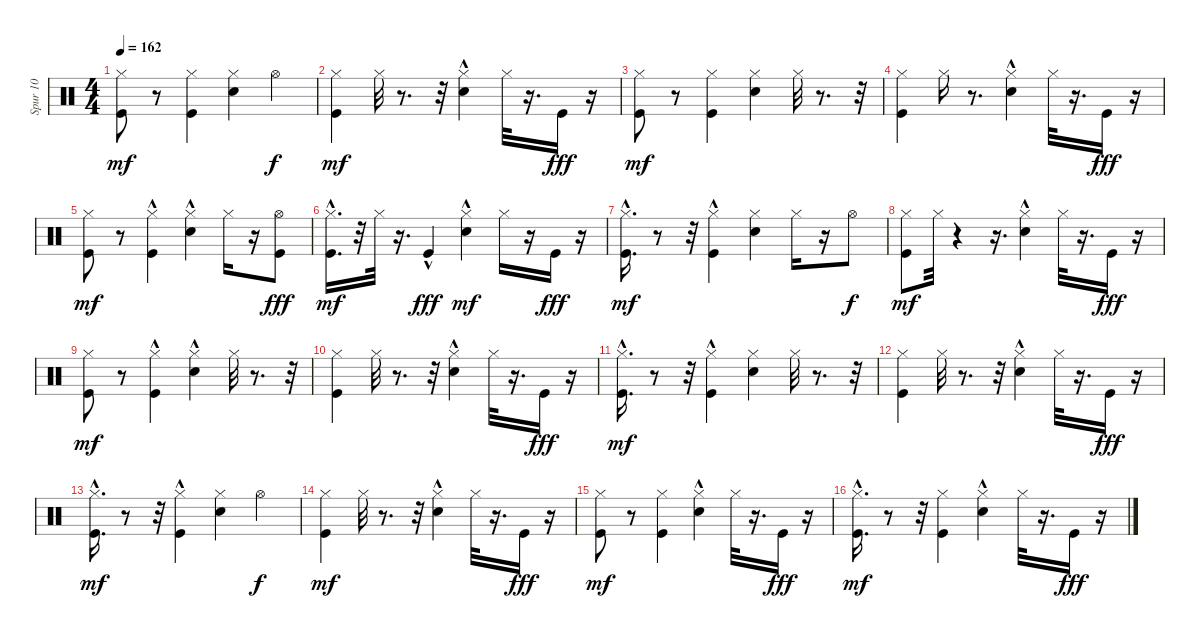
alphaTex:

\track ("Spur 10" "Spur 10") {instrument percussion}
\staff {score}
\articulation defaults
\ts (4 4)
\tempo 162
\clef neutral
\ks c
("Kick (hit)" "Hi-Hat (closed)").8{dy mf} r.8 ("Kick (hit)" "Hi-Hat (closed)").4 ("Snare (hit) 2" "Hi-Hat (closed)").4 "Hi-Hat (open)".4{dy f} |
("Kick (hit)" "Hi-Hat (closed)").4{dy mf} "Hi-Hat (closed)".32 r.8{d} r.32 ("Snare (hit) 2"{hac} "Hi-Hat (closed)").4 "Hi-Hat (closed)".32 r.16{d} "Kick (hit)".16{dy fff} r.16 |
("Kick (hit)" "Hi-Hat (closed)").8{dy mf} r.8 ("Kick (hit)" "Hi-Hat (closed)").4 ("Snare (hit) 2" "Hi-Hat (closed)").4 "Hi-Hat (closed)".32 r.8{d} r.32 |
("Kick (hit)" "Hi-Hat (closed)").4 "Hi-Hat (closed)".16 r.8{d} ("Snare (hit) 2"{hac} "Hi-Hat (closed)").4 "Hi-Hat (closed)".32 r.16{d} "Kick (hit)".16{dy fff} r.16 |
("Kick (hit)" "Hi-Hat (closed)").8{dy mf} r.8 ("Kick (hit)"{hac} "Hi-Hat (closed)").4 ("Snare (hit) 2"{hac} "Hi-Hat (closed)").4 "Hi-Hat (closed)".16 r.16 ("Kick (hit)" "Hi-Hat (open)").8{dy fff} |
("Kick (hit)"{hac} "Hi-Hat (closed)").16{d dy mf} r.32 "Hi-Hat (closed)".32 r.16{d} "Kick (hit)"{hac}.4{dy fff} ("Snare (hit) 2"{hac} "Hi-Hat (closed)").4{dy mf} "Hi-Hat (closed)".16 r.16 "Kick (hit)".16{dy fff} r.16 |
("Kick (hit)"{hac} "Hi-Hat (closed)").16{d dy mf} r.8 r.32 ("Kick (hit)"{hac} "Hi-Hat (closed)").4 ("Snare (hit) 2" "Hi-Hat (closed)").4 "Hi-Hat (closed)".16 r.16 "Hi-Hat (open)".8{dy f} |
("Kick (hit)" "Hi-Hat (closed)").8{dy mf} "Hi-Hat (closed)".32 r.4 r.16{d} ("Snare (hit) 2"{hac} "Hi-Hat (closed)").4 "Hi-Hat (closed)".32 r.16{d} "Kick (hit)".16{dy fff} r.16 |
("Kick (hit)" "Hi-Hat (closed)").8{dy mf} r.8 ("Kick (hit)"{hac} "Hi-Hat (closed)").4 ("Snare (hit) 2"{hac} "Hi-Hat (closed)").4 "Hi-Hat (closed)".32 r.8{d} r.32 |
("Kick (hit)" "Hi-Hat (closed)").4 "Hi-Hat (closed)".32 r.8{d} r.32 ("Snare (hit) 2"{hac} "Hi-Hat (closed)").4 "Hi-Hat (closed)".32 r.16{d} "Kick (hit)".16{dy fff} r.16 |
("Kick (hit)"{hac} "Hi-Hat (closed)").16{d dy mf} r.8 r.32 ("Kick (hit)"{hac} "Hi-Hat (closed)").4 ("Snare (hit) 2" "Hi-Hat (closed)").4 "Hi-Hat (closed)".32 r.8{d} r.32 |
("Kick (hit)" "Hi-Hat (closed)").4 "Hi-Hat (closed)".32 r.8{d} r.32 ("Snare (hit) 2"{hac} "Hi-Hat (closed)").4 "Hi-Hat (closed)".32 r.16{d} "Kick (hit)".16{dy fff} r.16 |
("Kick (hit)"{hac} "Hi-Hat (closed)").16{d dy mf} r.8 r.32 ("Kick (hit)"{hac} "Hi-Hat (closed)").4 ("Snare (hit) 2" "Hi-Hat (closed)").4 "Hi-Hat (open)".4{dy f} |
("Kick (hit)" "Hi-Hat (closed)").4{dy mf} "Hi-Hat (closed)".32 r.8{d} r.32 ("Snare (hit) 2"{hac} "Hi-Hat (closed)").4 "Hi-Hat (closed)".32 r.16{d} "Kick (hit)".16{dy fff} r.16 |
("Kick (hit)" "Hi-Hat (closed)").8{dy mf} r.8 ("Kick (hit)" "Hi-Hat (closed)").4 ("Snare (hit) 2"{hac} "Hi-Hat (closed)").4 "Hi-Hat (closed)".32 r.16{d} "Kick (hit)".16{dy fff} r.16 |
("Kick (hit)"{hac} "Hi-Hat (closed)").16{d dy mf} r.8 r.32 ("Kick (hit)" "Hi-Hat (closed)").4 ("Snare (hit) 2"{hac} "Hi-Hat (closed)").4 "Hi-Hat (closed)".32 r.16{d} "Kick (hit)".16{dy fff} r.16
